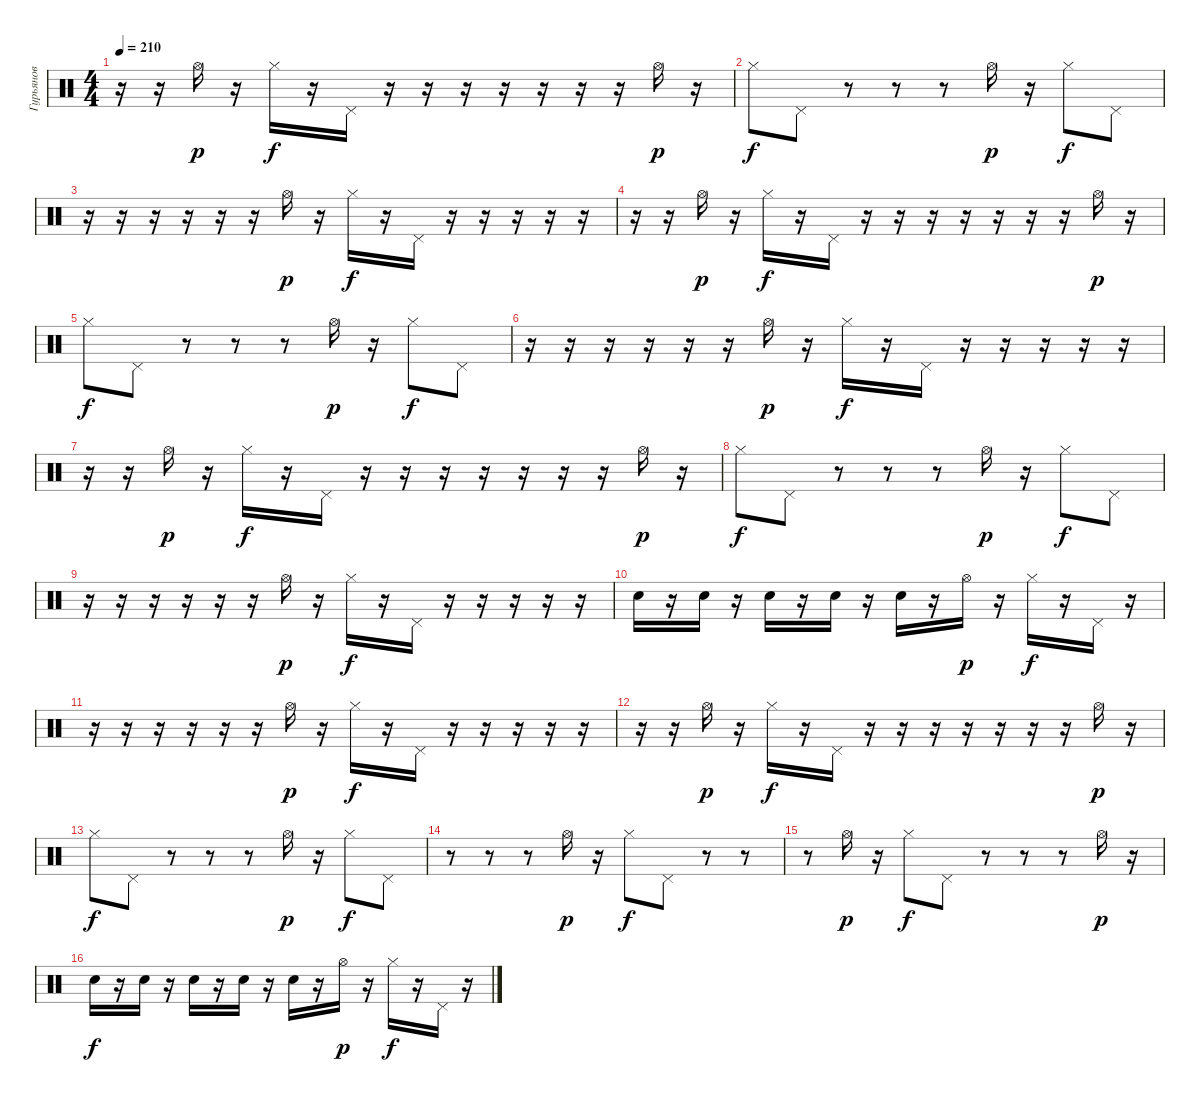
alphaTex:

\track ("Гурьянов" "Гурьянов") {instrument percussion}
\staff {score}
\articulation defaults
\ts (4 4)
\tempo 210
\clef neutral
\ks c
r.16{dy f} r.16 "Hi-Hat (open)".16{dy p} r.16 "Hi-Hat (closed)".16{dy f} r.16 "Pedal Hi-Hat (hit)".16 r.16 r.16 r.16 r.16 r.16 r.16 r.16 "Hi-Hat (open)".16{dy p} r.16 |
"Hi-Hat (closed)".8{dy f} "Pedal Hi-Hat (hit)".8 r.8 r.8 r.8 "Hi-Hat (open)".16{dy p} r.16 "Hi-Hat (closed)".8{dy f} "Pedal Hi-Hat (hit)".8 |
r.16 r.16 r.16 r.16 r.16 r.16 "Hi-Hat (open)".16{dy p} r.16 "Hi-Hat (closed)".16{dy f} r.16 "Pedal Hi-Hat (hit)".16 r.16 r.16 r.16 r.16 r.16 |
r.16 r.16 "Hi-Hat (open)".16{dy p} r.16 "Hi-Hat (closed)".16{dy f} r.16 "Pedal Hi-Hat (hit)".16 r.16 r.16 r.16 r.16 r.16 r.16 r.16 "Hi-Hat (open)".16{dy p} r.16 |
"Hi-Hat (closed)".8{dy f} "Pedal Hi-Hat (hit)".8 r.8 r.8 r.8 "Hi-Hat (open)".16{dy p} r.16 "Hi-Hat (closed)".8{dy f} "Pedal Hi-Hat (hit)".8 |
r.16 r.16 r.16 r.16 r.16 r.16 "Hi-Hat (open)".16{dy p} r.16 "Hi-Hat (closed)".16{dy f} r.16 "Pedal Hi-Hat (hit)".16 r.16 r.16 r.16 r.16 r.16 |
r.16 r.16 "Hi-Hat (open)".16{dy p} r.16 "Hi-Hat (closed)".16{dy f} r.16 "Pedal Hi-Hat (hit)".16 r.16 r.16 r.16 r.16 r.16 r.16 r.16 "Hi-Hat (open)".16{dy p} r.16 |
"Hi-Hat (closed)".8{dy f} "Pedal Hi-Hat (hit)".8 r.8 r.8 r.8 "Hi-Hat (open)".16{dy p} r.16 "Hi-Hat (closed)".8{dy f} "Pedal Hi-Hat (hit)".8 |
r.16 r.16 r.16 r.16 r.16 r.16 "Hi-Hat (open)".16{dy p} r.16 "Hi-Hat (closed)".16{dy f} r.16 "Pedal Hi-Hat (hit)".16 r.16 r.16 r.16 r.16 r.16 |
"Snare (hit) 2".16 r.16 "Snare (hit) 2".16 r.16 "Snare (hit) 2".16 r.16 "Snare (hit) 2".16 r.16 "Snare (hit) 2".16 r.16 "Hi-Hat (open)".16{dy p} r.16 "Hi-Hat (closed)".16{dy f} r.16 "Pedal Hi-Hat (hit)".16 r.16 |
r.16 r.16 r.16 r.16 r.16 r.16 "Hi-Hat (open)".16{dy p} r.16 "Hi-Hat (closed)".16{dy f} r.16 "Pedal Hi-Hat (hit)".16 r.16 r.16 r.16 r.16 r.16 |
r.16 r.16 "Hi-Hat (open)".16{dy p} r.16 "Hi-Hat (closed)".16{dy f} r.16 "Pedal Hi-Hat (hit)".16 r.16 r.16 r.16 r.16 r.16 r.16 r.16 "Hi-Hat (open)".16{dy p} r.16 |
"Hi-Hat (closed)".8{dy f} "Pedal Hi-Hat (hit)".8 r.8 r.8 r.8 "Hi-Hat (open)".16{dy p} r.16 "Hi-Hat (closed)".8{dy f} "Pedal Hi-Hat (hit)".8 |
r.8 r.8 r.8 "Hi-Hat (open)".16{dy p} r.16 "Hi-Hat (closed)".8{dy f} "Pedal Hi-Hat (hit)".8 r.8 r.8 |
r.8 "Hi-Hat (open)".16{dy p} r.16 "Hi-Hat (closed)".8{dy f} "Pedal Hi-Hat (hit)".8 r.8 r.8 r.8 "Hi-Hat (open)".16{dy p} r.16 |
"Snare (hit) 2".16{dy f} r.16 "Snare (hit) 2".16 r.16 "Snare (hit) 2".16 r.16 "Snare (hit) 2".16 r.16 "Snare (hit) 2".16 r.16 "Hi-Hat (open)".16{dy p} r.16 "Hi-Hat (closed)".16{dy f} r.16 "Pedal Hi-Hat (hit)".16 r.16
